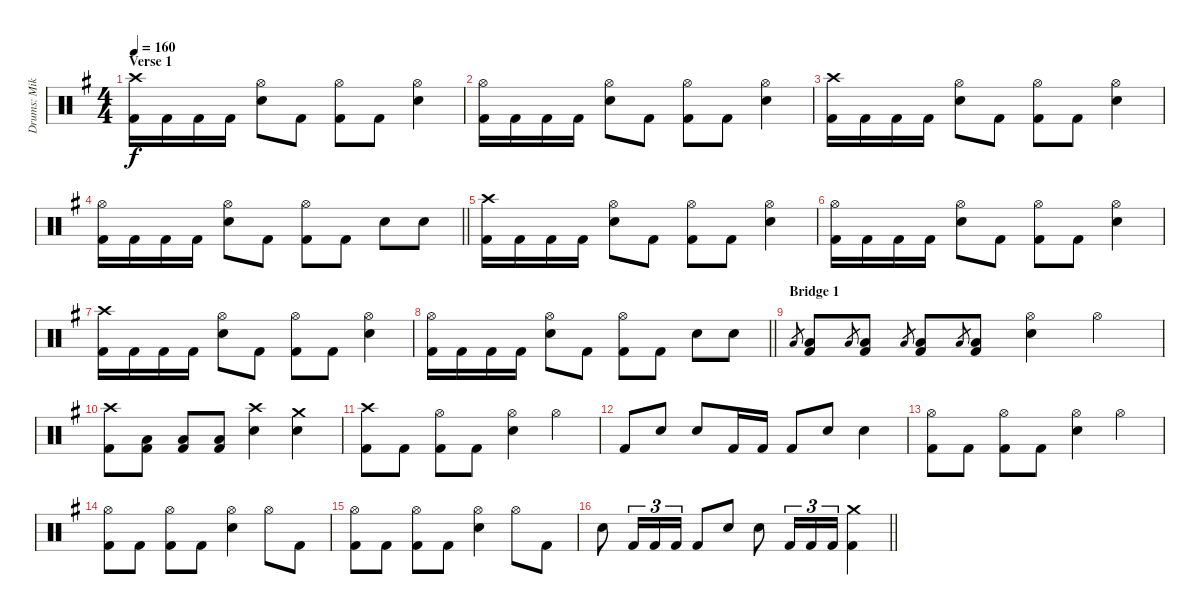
\track ("Drums: Mikko Korsbäck" "Drums: Mik") {instrument percussion}
\staff {score}
\articulation defaults
\ts (4 4)
\section ("" "Verse 1")
\tempo 160
\clef neutral
\ks eminor
("Crash high (hit)" "Kick (hit) 2").16{dy f} "Kick (hit) 2".16 "Kick (hit) 2".16 "Kick (hit) 2".16 ("Hi-Hat (open)" "Electric Snare (hit)").8 "Kick (hit) 2".8 ("Hi-Hat (open)" "Kick (hit) 2").8 "Kick (hit) 2".8 ("Hi-Hat (open)" "Electric Snare (hit)").4 |
("Hi-Hat (open)" "Kick (hit) 2").16 "Kick (hit) 2".16 "Kick (hit) 2".16 "Kick (hit) 2".16 ("Hi-Hat (open)" "Electric Snare (hit)").8 "Kick (hit) 2".8 ("Hi-Hat (open)" "Kick (hit) 2").8 "Kick (hit) 2".8 ("Hi-Hat (open)" "Electric Snare (hit)").4 |
("Crash high (hit)" "Kick (hit) 2").16 "Kick (hit) 2".16 "Kick (hit) 2".16 "Kick (hit) 2".16 ("Hi-Hat (open)" "Electric Snare (hit)").8 "Kick (hit) 2".8 ("Hi-Hat (open)" "Kick (hit) 2").8 "Kick (hit) 2".8 ("Hi-Hat (open)" "Electric Snare (hit)").4 |
\barLineRight lightlight
("Hi-Hat (open)" "Kick (hit) 2").16 "Kick (hit) 2".16 "Kick (hit) 2".16 "Kick (hit) 2".16 ("Hi-Hat (open)" "Electric Snare (hit)").8 "Kick (hit) 2".8 ("Hi-Hat (open)" "Kick (hit) 2").8 "Kick (hit) 2".8 "Electric Snare (hit)".8 "Electric Snare (hit)".8 |
("Crash high (hit)" "Kick (hit) 2").16 "Kick (hit) 2".16 "Kick (hit) 2".16 "Kick (hit) 2".16 ("Hi-Hat (open)" "Electric Snare (hit)").8 "Kick (hit) 2".8 ("Hi-Hat (open)" "Kick (hit) 2").8 "Kick (hit) 2".8 ("Hi-Hat (open)" "Electric Snare (hit)").4 |
("Hi-Hat (open)" "Kick (hit) 2").16 "Kick (hit) 2".16 "Kick (hit) 2".16 "Kick (hit) 2".16 ("Hi-Hat (open)" "Electric Snare (hit)").8 "Kick (hit) 2".8 ("Hi-Hat (open)" "Kick (hit) 2").8 "Kick (hit) 2".8 ("Hi-Hat (open)" "Electric Snare (hit)").4 |
("Crash high (hit)" "Kick (hit) 2").16 "Kick (hit) 2".16 "Kick (hit) 2".16 "Kick (hit) 2".16 ("Hi-Hat (open)" "Electric Snare (hit)").8 "Kick (hit) 2".8 ("Hi-Hat (open)" "Kick (hit) 2").8 "Kick (hit) 2".8 ("Hi-Hat (open)" "Electric Snare (hit)").4 |
\barLineRight lightlight
("Hi-Hat (open)" "Kick (hit) 2").16 "Kick (hit) 2".16 "Kick (hit) 2".16 "Kick (hit) 2".16 ("Hi-Hat (open)" "Electric Snare (hit)").8 "Kick (hit) 2".8 ("Hi-Hat (open)" "Kick (hit) 2").8 "Kick (hit) 2".8 "Electric Snare (hit)".8 "Electric Snare (hit)".8 |
\section ("" "Bridge 1")
"Low Tom (hit)".8{gr} ("Low Tom (hit)" "Kick (hit) 2").8 "Low Tom (hit)".8{gr} ("Low Tom (hit)" "Kick (hit) 2").8 "Low Tom (hit)".8{gr} ("Low Tom (hit)" "Kick (hit) 2").8 "Low Tom (hit)".8{gr} ("Low Tom (hit)" "Kick (hit) 2").8 ("Hi-Hat (open)" "Electric Snare (hit)").4 "Hi-Hat (open)".4 |
("Crash high (hit)" "Kick (hit) 2").8 ("Low Tom (hit)" "Kick (hit) 2").8 ("Low Tom (hit)" "Kick (hit) 2").8 ("Low Tom (hit)" "Kick (hit) 2").8 ("Crash high (hit)" "Electric Snare (hit)").4 ("Crash medium (hit)" "Electric Snare (hit)").4 |
("Crash high (hit)" "Kick (hit) 2").8 "Kick (hit) 2".8 ("Hi-Hat (open)" "Kick (hit) 2").8 "Kick (hit) 2".8 ("Hi-Hat (open)" "Electric Snare (hit)").4 "Hi-Hat (open)".4 |
"Kick (hit) 2".8 "Electric Snare (hit)".8 "Electric Snare (hit)".8 "Kick (hit) 2".16 "Kick (hit) 2".16 "Kick (hit) 2".8 "Electric Snare (hit)".8 "Electric Snare (hit)".4 |
("Hi-Hat (open)" "Kick (hit) 2").8 "Kick (hit) 2".8 ("Hi-Hat (open)" "Kick (hit) 2").8 "Kick (hit) 2".8 ("Hi-Hat (open)" "Electric Snare (hit)").4 "Hi-Hat (open)".4 |
("Hi-Hat (open)" "Kick (hit) 2").8 "Kick (hit) 2".8 ("Hi-Hat (open)" "Kick (hit) 2").8 "Kick (hit) 2".8 ("Hi-Hat (open)" "Electric Snare (hit)").4 "Hi-Hat (open)".8 "Kick (hit) 2".8 |
("Hi-Hat (open)" "Kick (hit) 2").8 "Kick (hit) 2".8 ("Hi-Hat (open)" "Kick (hit) 2").8 "Kick (hit) 2".8 ("Hi-Hat (open)" "Electric Snare (hit)").4 "Hi-Hat (open)".8 "Kick (hit) 2".8 |
\barLineRight lightlight "Electric Snare (hit)".8 "Kick (hit) 2".16{tu (3 2)} "Kick (hit) 2".16{tu (3 2)} "Kick (hit) 2".16{tu (3 2)} "Kick (hit) 2".8 "Electric Snare (hit)".8 "Electric Snare (hit)".8 "Kick (hit) 2".16{tu (3 2)} "Kick (hit) 2".16{tu (3 2)} "Kick (hit) 2".16{tu (3 2)}
("Crash medium (hit)" "Kick (hit) 2").4
